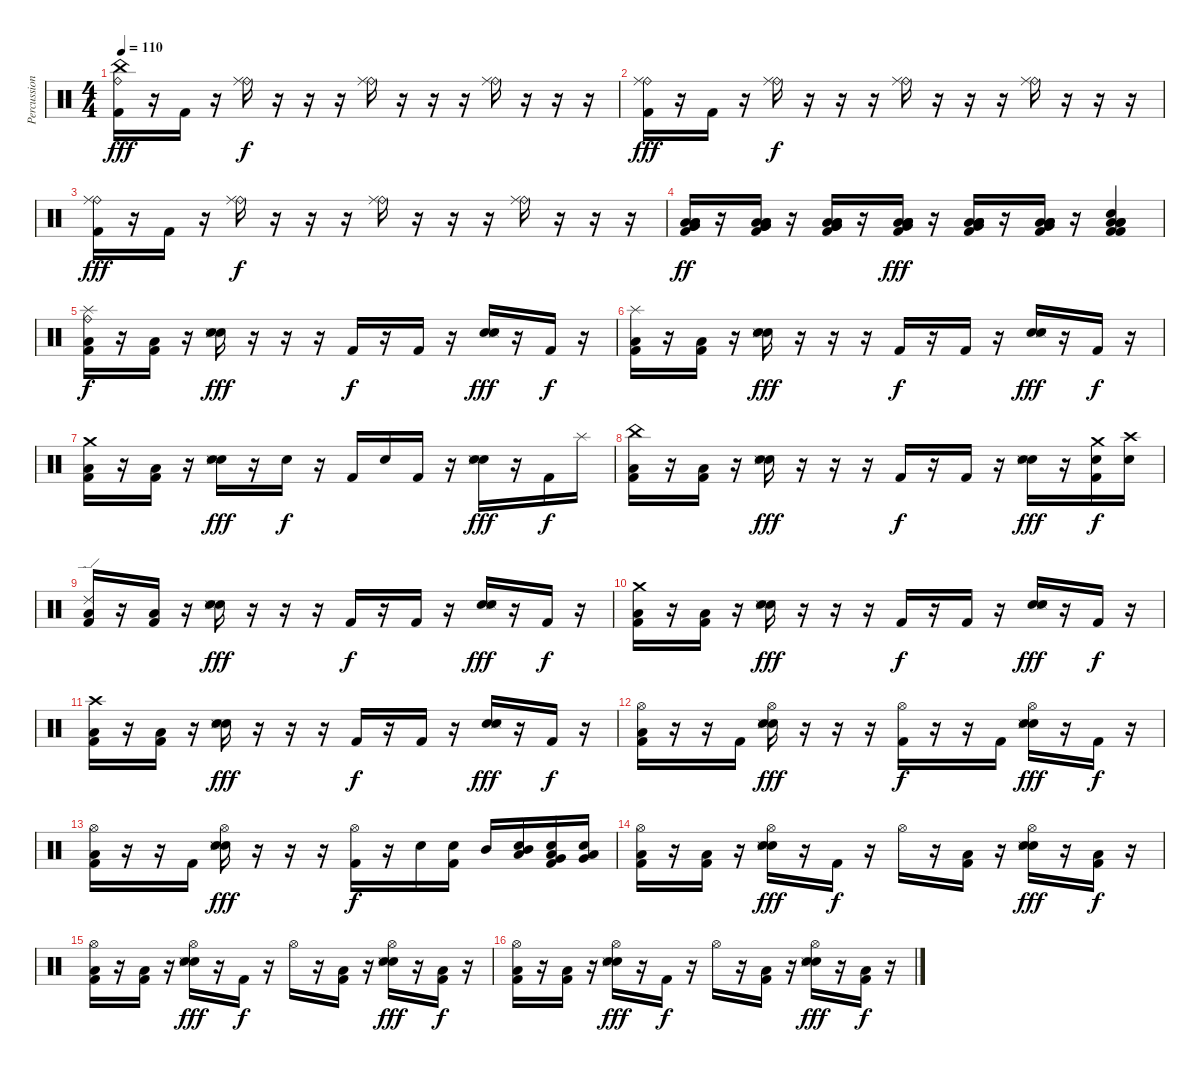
\track ("Percussion" "Percussion") {instrument percussion}
\staff {score}
\articulation defaults
\ts (4 4)
\tempo 110
\clef neutral
\ks c
("Ride (bell)" "China (hit)" "Kick (hit) 2").16{dy fff} r.16 "Kick (hit) 2".16 r.16 ("Ride (bell)" "Ride (middle)").16{dy f} r.16 r.16 r.16 ("Ride (bell)" "Ride (middle)").16 r.16 r.16 r.16 ("Ride (bell)" "Ride (middle)").16 r.16 r.16 r.16 |
("Ride (bell)" "Ride (middle)" "Kick (hit) 2").16{dy fff} r.16 "Kick (hit) 2".16 r.16 ("Ride (bell)" "Ride (middle)").16{dy f} r.16 r.16 r.16 ("Ride (bell)" "Ride (middle)").16 r.16 r.16 r.16 ("Ride (bell)" "Ride (middle)").16 r.16 r.16 r.16 |
("Ride (bell)" "Ride (middle)" "Kick (hit) 2").16{dy fff} r.16 "Kick (hit) 2".16 r.16 ("Ride (bell)" "Ride (middle)").16{dy f} r.16 r.16 r.16 ("Ride (bell)" "Ride (middle)").16 r.16 r.16 r.16 ("Ride (bell)" "Ride (middle)").16 r.16 r.16 r.16 |
("Low Floor Tom (hit)" "Very Low Tom (hit)" "Low Floor Tom (hit)" "Very Low Tom (hit)" "Low Floor Tom (hit)" "Kick (hit) 2").16{dy ff} r.16 ("Low Floor Tom (hit)" "Very Low Tom (hit)" "Low Floor Tom (hit)" "Very Low Tom (hit)" "Low Floor Tom (hit)" "Kick (hit) 2").16 r.16 ("Low Floor Tom (hit)" "Very Low Tom (hit)" "Low Floor Tom (hit)" "Very Low Tom (hit)" "Low Floor Tom (hit)" "Kick (hit) 2").16 r.16 ("Low Floor Tom (hit)" "Low Floor Tom (hit)" "Low Floor Tom (hit)" "Very Low Tom (hit)" "Low Floor Tom (hit)" "Kick (hit) 2").16{dy fff} r.16 ("Low Floor Tom (hit)" "Low Floor Tom (hit)" "Low Floor Tom (hit)" "Very Low Tom (hit)" "Low Floor Tom (hit)" "Kick (hit) 2").16 r.16 ("Low Floor Tom (hit)" "Low Floor Tom (hit)" "Low Floor Tom (hit)" "Very Low Tom (hit)" "Low Floor Tom (hit)" "Kick (hit) 2").16 r.16 ("Low Floor Tom (hit)" "Kick (hit) 2" "Low Floor Tom (hit)" "Electric Snare (hit)" "Low Floor Tom (hit)" "Kick (hit) 2").4 |
("Splash (hit)" "Ride (bell)" "Low Floor Tom (hit)" "Kick (hit) 2").16{dy f} r.16 ("Low Floor Tom (hit)" "Kick (hit) 2").16 r.16 ("Electric Snare (hit)" "Electric Snare (hit)" "Snare (side stick) 3").16{dy fff} r.16 r.16 r.16 "Kick (hit) 2".16{dy f} r.16 "Kick (hit) 2".16 r.16 ("Electric Snare (hit)" "Electric Snare (hit)" "Snare (side stick) 3").16{dy fff} r.16 "Kick (hit) 2".16{dy f} r.16 |
("Splash (hit)" "Low Floor Tom (hit)" "Kick (hit) 2").16 r.16 ("Low Floor Tom (hit)" "Kick (hit) 2").16 r.16 ("Electric Snare (hit)" "Electric Snare (hit)" "Snare (side stick) 3").16{dy fff} r.16 r.16 r.16 "Kick (hit) 2".16{dy f} r.16 "Kick (hit) 2".16 r.16 ("Electric Snare (hit)" "Electric Snare (hit)" "Snare (side stick) 3").16{dy fff} r.16 "Kick (hit) 2".16{dy f} r.16 |
("Crash medium (hit)" "Low Floor Tom (hit)" "Kick (hit) 2").16 r.16 ("Low Floor Tom (hit)" "Kick (hit) 2").16 r.16 ("Electric Snare (hit)" "Electric Snare (hit)" "Snare (side stick) 3").16{dy fff} r.16 "Electric Snare (hit)".16{dy f} r.16 "Kick (hit) 2".16 "Electric Snare (hit)".16 "Kick (hit) 2".16 r.16 ("Electric Snare (hit)" "Electric Snare (hit)" "Snare (side stick) 3").16{dy fff} r.16 "Kick (hit) 2".16{dy f} "Splash (hit)".16 |
("China (hit)" "Low Floor Tom (hit)" "Kick (hit) 2").16 r.16 ("Low Floor Tom (hit)" "Kick (hit) 2").16 r.16 ("Electric Snare (hit)" "Electric Snare (hit)" "Snare (side stick) 3").16{dy fff} r.16 r.16 r.16 "Kick (hit) 2".16{dy f} r.16 "Kick (hit) 2".16 r.16 ("Electric Snare (hit)" "Electric Snare (hit)" "Snare (side stick) 3").16{dy fff} r.16 ("Crash medium (hit)" "Electric Snare (hit)" "Kick (hit) 2").16{dy f} ("Crash high (hit)" "Electric Snare (hit)").16 |
("Ride (edge) 2" "Low Floor Tom (hit)" "Kick (hit) 2").16 r.16 ("Low Floor Tom (hit)" "Kick (hit) 2").16 r.16 ("Electric Snare (hit)" "Electric Snare (hit)" "Snare (side stick) 3").16{dy fff} r.16 r.16 r.16 "Kick (hit) 2".16{dy f} r.16 "Kick (hit) 2".16 r.16 ("Electric Snare (hit)" "Electric Snare (hit)" "Snare (side stick) 3").16{dy fff} r.16 "Kick (hit) 2".16{dy f} r.16 |
("Crash medium (hit)" "Low Floor Tom (hit)" "Kick (hit) 2").16 r.16 ("Low Floor Tom (hit)" "Kick (hit) 2").16 r.16 ("Electric Snare (hit)" "Electric Snare (hit)" "Snare (side stick) 3").16{dy fff} r.16 r.16 r.16 "Kick (hit) 2".16{dy f} r.16 "Kick (hit) 2".16 r.16 ("Electric Snare (hit)" "Electric Snare (hit)" "Snare (side stick) 3").16{dy fff} r.16 "Kick (hit) 2".16{dy f} r.16 |
("Crash high (hit)" "Low Floor Tom (hit)" "Kick (hit) 2").16 r.16 ("Low Floor Tom (hit)" "Kick (hit) 2").16 r.16 ("Electric Snare (hit)" "Electric Snare (hit)" "Snare (side stick) 3").16{dy fff} r.16 r.16 r.16 "Kick (hit) 2".16{dy f} r.16 "Kick (hit) 2".16 r.16 ("Electric Snare (hit)" "Electric Snare (hit)" "Snare (side stick) 3").16{dy fff} r.16 "Kick (hit) 2".16{dy f} r.16 |
("Hi-Hat (open)" "Low Floor Tom (hit)" "Kick (hit) 2").16 r.16 r.16 "Kick (hit) 2".16 ("Hi-Hat (open)" "Electric Snare (hit)" "Electric Snare (hit)" "Snare (side stick) 3").16{dy fff} r.16 r.16 r.16 ("Hi-Hat (open)" "Kick (hit) 2").16{dy f} r.16 r.16 "Kick (hit) 2".16 ("Hi-Hat (open)" "Electric Snare (hit)" "Electric Snare (hit)" "Snare (side stick) 3").16{dy fff} r.16 "Kick (hit) 2".16{dy f} r.16 |
("Hi-Hat (open)" "Low Floor Tom (hit)" "Kick (hit) 2").16 r.16 r.16 "Kick (hit) 2".16 ("Hi-Hat (open)" "Electric Snare (hit)" "Electric Snare (hit)" "Snare (side stick) 3").16{dy fff} r.16 r.16 r.16 ("Hi-Hat (open)" "Kick (hit) 2").16{dy f} r.16 "Electric Snare (hit)".16 ("Electric Snare (hit)" "Kick (hit) 2").16 "Mid Tom (hit)".16 ("Mid Tom (hit)" "Low Tom (hit)" "Electric Snare (hit)").16 ("Low Tom (hit)" "Very Low Tom (hit)" "Electric Snare (hit)" "Kick (hit) 2").16 ("Very Low Tom (hit)" "Low Floor Tom (hit)" "Electric Snare (hit)").16 |
("Hi-Hat (open)" "Low Floor Tom (hit)" "Kick (hit) 2").16 r.16 ("Low Floor Tom (hit)" "Kick (hit) 2").16 r.16 ("Hi-Hat (open)" "Electric Snare (hit)" "Electric Snare (hit)" "Snare (side stick) 3").16{dy fff} r.16 "Kick (hit) 2".16{dy f} r.16 "Hi-Hat (open)".16 r.16 ("Low Floor Tom (hit)" "Kick (hit) 2").16 r.16 ("Hi-Hat (open)" "Electric Snare (hit)" "Electric Snare (hit)" "Snare (side stick) 3").16{dy fff} r.16 ("Low Floor Tom (hit)" "Kick (hit) 2").16{dy f} r.16 |
("Hi-Hat (open)" "Low Floor Tom (hit)" "Kick (hit) 2").16 r.16 ("Low Floor Tom (hit)" "Kick (hit) 2").16 r.16 ("Hi-Hat (open)" "Electric Snare (hit)" "Electric Snare (hit)" "Snare (side stick) 3").16{dy fff} r.16 "Kick (hit) 2".16{dy f} r.16 "Hi-Hat (open)".16 r.16 ("Low Floor Tom (hit)" "Kick (hit) 2").16 r.16 ("Hi-Hat (open)" "Electric Snare (hit)" "Electric Snare (hit)" "Snare (side stick) 3").16{dy fff} r.16 ("Low Floor Tom (hit)" "Kick (hit) 2").16{dy f} r.16 |
("Hi-Hat (open)" "Low Floor Tom (hit)" "Kick (hit) 2").16 r.16 ("Low Floor Tom (hit)" "Kick (hit) 2").16 r.16 ("Hi-Hat (open)" "Electric Snare (hit)" "Electric Snare (hit)" "Snare (side stick) 3").16{dy fff} r.16 "Kick (hit) 2".16{dy f} r.16 "Hi-Hat (open)".16 r.16 ("Low Floor Tom (hit)" "Kick (hit) 2").16 r.16 ("Hi-Hat (open)" "Electric Snare (hit)" "Electric Snare (hit)" "Snare (side stick) 3").16{dy fff} r.16 ("Low Floor Tom (hit)" "Kick (hit) 2").16{dy f} r.16
